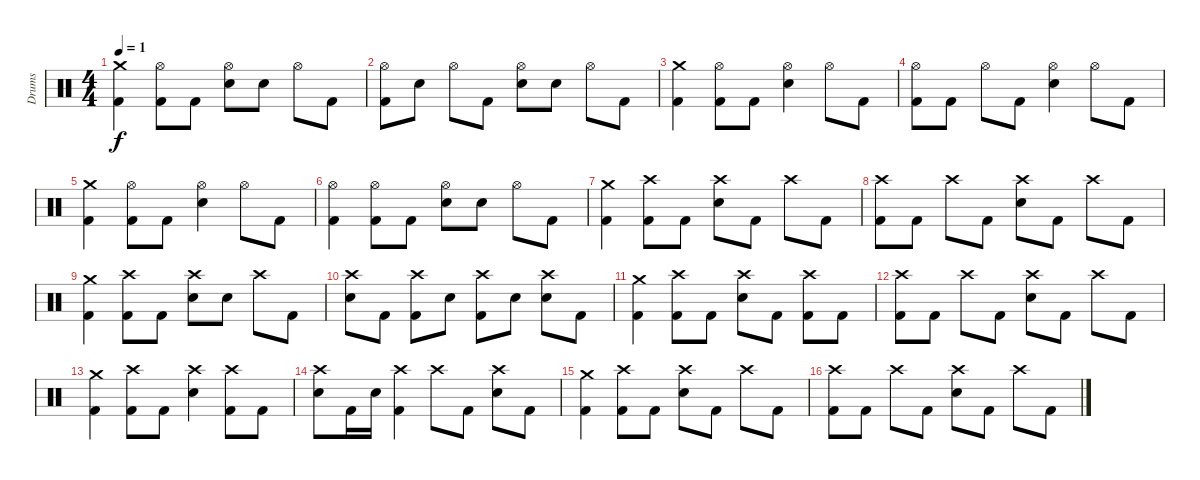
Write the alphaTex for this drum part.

\track ("Drums" "Drums") {instrument percussion}
\staff {score}
\articulation defaults
\ts (4 4)
\tempo 1
\clef neutral
\ks c
("Kick (hit) 2" "Crash medium (hit)").4{dy f} ("Hi-Hat (open)" "Kick (hit) 2").8 "Kick (hit) 2".8 ("Snare (hit) 2" "Hi-Hat (open)").8 "Snare (hit) 2".8 "Hi-Hat (open)".8 "Kick (hit) 2".8 |
("Hi-Hat (open)" "Kick (hit) 2").8 "Snare (hit) 2".8 "Hi-Hat (open)".8 "Kick (hit) 2".8 ("Snare (hit) 2" "Hi-Hat (open)").8 "Snare (hit) 2".8 "Hi-Hat (open)".8 "Kick (hit) 2".8 |
("Kick (hit) 2" "Crash medium (hit)").4 ("Hi-Hat (open)" "Kick (hit) 2").8 "Kick (hit) 2".8 ("Snare (hit) 2" "Hi-Hat (open)").4 "Hi-Hat (open)".8 "Kick (hit) 2".8 |
("Kick (hit) 2" "Hi-Hat (open)").8 "Kick (hit) 2".8 "Hi-Hat (open)".8 "Kick (hit) 2".8 ("Snare (hit) 2" "Hi-Hat (open)").4 "Hi-Hat (open)".8 "Kick (hit) 2".8 |
("Kick (hit) 2" "Crash medium (hit)").4 ("Hi-Hat (open)" "Kick (hit) 2").8 "Kick (hit) 2".8 ("Snare (hit) 2" "Hi-Hat (open)").4 "Hi-Hat (open)".8 "Kick (hit) 2".8 |
("Hi-Hat (open)" "Kick (hit) 2").4 ("Hi-Hat (open)" "Kick (hit) 2").8 "Kick (hit) 2".8 ("Snare (hit) 2" "Hi-Hat (open)").8 "Snare (hit) 2".8 "Hi-Hat (open)".8 "Kick (hit) 2".8 |
("Kick (hit) 2" "Crash medium (hit)").4 ("Crash high (hit)" "Kick (hit) 2").8 "Kick (hit) 2".8 ("Snare (hit) 2" "Crash high (hit)").8 "Kick (hit) 2".8 "Crash high (hit)".8 "Kick (hit) 2".8 |
("Crash high (hit)" "Kick (hit) 2").8 "Kick (hit) 2".8 "Crash high (hit)".8 "Kick (hit) 2".8 ("Snare (hit) 2" "Crash high (hit)").8 "Kick (hit) 2".8 "Crash high (hit)".8 "Kick (hit) 2".8 |
("Kick (hit) 2" "Crash medium (hit)").4 ("Crash high (hit)" "Kick (hit) 2").8 "Kick (hit) 2".8 ("Snare (hit) 2" "Crash high (hit)").8 "Snare (hit) 2".8 "Crash high (hit)".8 "Kick (hit) 2".8 |
("Crash high (hit)" "Snare (hit) 2").8 "Kick (hit) 2".8 ("Crash high (hit)" "Kick (hit) 2").8 "Snare (hit) 2".8 ("Crash high (hit)" "Kick (hit) 2").8 "Snare (hit) 2".8 ("Crash high (hit)" "Snare (hit) 2").8 "Kick (hit) 2".8 |
("Kick (hit) 2" "Crash medium (hit)").4 ("Crash high (hit)" "Kick (hit) 2").8 "Kick (hit) 2".8 ("Snare (hit) 2" "Crash high (hit)").8 "Kick (hit) 2".8 ("Crash high (hit)" "Kick (hit) 2").8 "Kick (hit) 2".8 |
("Crash high (hit)" "Kick (hit) 2").8 "Kick (hit) 2".8 "Crash high (hit)".8 "Kick (hit) 2".8 ("Snare (hit) 2" "Crash high (hit)").8 "Kick (hit) 2".8 "Crash high (hit)".8 "Kick (hit) 2".8 |
("Kick (hit) 2" "Crash medium (hit)").4 ("Crash high (hit)" "Kick (hit) 2").8 "Kick (hit) 2".8 ("Snare (hit) 2" "Crash high (hit)").4 ("Crash high (hit)" "Kick (hit) 2").8 "Kick (hit) 2".8 |
("Crash high (hit)" "Snare (hit) 2").8 "Kick (hit) 2".16 "Snare (hit) 2".16 ("Crash high (hit)" "Kick (hit) 2").4 "Crash high (hit)".8 "Kick (hit) 2".8 ("Crash high (hit)" "Snare (hit) 2").8 "Kick (hit) 2".8 |
("Kick (hit) 2" "Crash medium (hit)").4 ("Crash high (hit)" "Kick (hit) 2").8 "Kick (hit) 2".8 ("Snare (hit) 2" "Crash high (hit)").8 "Kick (hit) 2".8 "Crash high (hit)".8 "Kick (hit) 2".8 |
("Crash high (hit)" "Kick (hit) 2").8 "Kick (hit) 2".8 "Crash high (hit)".8 "Kick (hit) 2".8 ("Snare (hit) 2" "Crash high (hit)").8 "Kick (hit) 2".8 "Crash high (hit)".8 "Kick (hit) 2".8
